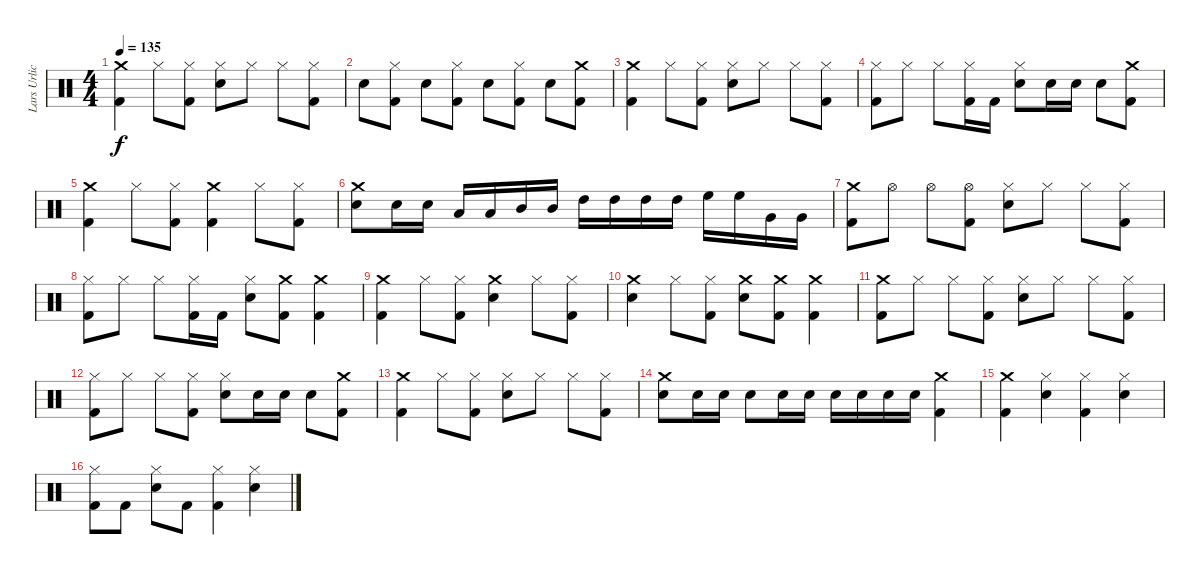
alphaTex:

\track ("Lars Urlich (drums)" "Lars Urlic") {instrument percussion}
\staff {score}
\articulation defaults
\ts (4 4)
\tempo 135
\clef neutral
\ks c
("Kick (hit) 2" "Crash medium (hit)").4{dy f} "Hi-Hat (closed)".8 ("Kick (hit) 2" "Hi-Hat (closed)").8 ("Snare (hit) 2" "Hi-Hat (closed)").8 "Hi-Hat (closed)".8 "Hi-Hat (closed)".8 ("Kick (hit) 2" "Hi-Hat (closed)").8 |
"Snare (hit) 2".8 ("Kick (hit) 2" "Hi-Hat (closed)").8 "Snare (hit) 2".8 ("Kick (hit) 2" "Hi-Hat (closed)").8 "Snare (hit) 2".8 ("Hi-Hat (closed)" "Kick (hit) 2").8 "Snare (hit) 2".8 ("Crash medium (hit)" "Kick (hit) 2").8 |
("Kick (hit) 2" "Crash medium (hit)").4 "Hi-Hat (closed)".8 ("Kick (hit) 2" "Hi-Hat (closed)").8 ("Snare (hit) 2" "Hi-Hat (closed)").8 "Hi-Hat (closed)".8 "Hi-Hat (closed)".8 ("Kick (hit) 2" "Hi-Hat (closed)").8 |
("Kick (hit) 2" "Hi-Hat (closed)").8 "Hi-Hat (closed)".8 "Hi-Hat (closed)".8 ("Kick (hit) 2" "Hi-Hat (closed)").16 "Kick (hit) 2".16 ("Snare (hit) 2" "Hi-Hat (closed)").8 "Snare (hit) 2".16 "Snare (hit) 2".16 "Snare (hit) 2".8 ("Crash medium (hit)" "Kick (hit) 2").8 |
("Kick (hit) 2" "Crash medium (hit)").4 "Hi-Hat (closed)".8 ("Kick (hit) 2" "Hi-Hat (closed)").8 ("Kick (hit) 2" "Crash medium (hit)").4 "Hi-Hat (closed)".8 ("Kick (hit) 2" "Hi-Hat (closed)").8 |
("Snare (hit) 2" "Crash medium (hit)").8 "Snare (hit) 2".16 "Snare (hit) 2".16 "Low Tom (hit)".16 "Low Tom (hit)".16 "Mid Tom (hit)".16 "Mid Tom (hit)".16 "High Tom (hit)".16 "High Tom (hit)".16 "High Tom (hit)".16 "High Tom (hit)".16 "High Floor Tom (hit)".16 "High Floor Tom (hit)".16 "Very Low Tom (hit)".16 "Very Low Tom (hit)".16 |
("Kick (hit) 2" "Crash medium (hit)").8 "Hi-Hat (open)".8 "Hi-Hat (open)".8 ("Kick (hit) 2" "Hi-Hat (open)").8 ("Snare (hit) 2" "Hi-Hat (closed)").8 "Hi-Hat (closed)".8 "Hi-Hat (closed)".8 ("Kick (hit) 2" "Hi-Hat (closed)").8 |
("Kick (hit) 2" "Hi-Hat (closed)").8 "Hi-Hat (closed)".8 "Hi-Hat (closed)".8 ("Kick (hit) 2" "Hi-Hat (closed)").16 "Kick (hit) 2".16 ("Snare (hit) 2" "Hi-Hat (closed)").8 ("Kick (hit) 2" "Crash medium (hit)").8 ("Kick (hit) 2" "Crash medium (hit)").4 |
("Kick (hit) 2" "Crash medium (hit)").4 "Hi-Hat (closed)".8 ("Kick (hit) 2" "Hi-Hat (closed)").8 ("Snare (hit) 2" "Crash medium (hit)").4 "Hi-Hat (closed)".8 ("Kick (hit) 2" "Hi-Hat (closed)").8 |
("Snare (hit) 2" "Crash medium (hit)").4 "Hi-Hat (closed)".8 ("Kick (hit) 2" "Hi-Hat (closed)").8 ("Snare (hit) 2" "Crash medium (hit)").8 ("Kick (hit) 2" "Crash medium (hit)").8 ("Crash medium (hit)" "Kick (hit) 2").4 |
("Crash medium (hit)" "Kick (hit) 2").8 "Hi-Hat (closed)".8 "Hi-Hat (closed)".8 ("Kick (hit) 2" "Hi-Hat (closed)").8 ("Snare (hit) 2" "Hi-Hat (closed)").8 "Hi-Hat (closed)".8 "Hi-Hat (closed)".8 ("Kick (hit) 2" "Hi-Hat (closed)").8 |
("Hi-Hat (closed)" "Kick (hit) 2").8 "Hi-Hat (closed)".8 "Hi-Hat (closed)".8 ("Kick (hit) 2" "Hi-Hat (closed)").8 ("Snare (hit) 2" "Hi-Hat (closed)").8 "Snare (hit) 2".16 "Snare (hit) 2".16 "Snare (hit) 2".8 ("Kick (hit) 2" "Crash medium (hit)").8 |
("Kick (hit) 2" "Crash medium (hit)").4 "Hi-Hat (closed)".8 ("Hi-Hat (closed)" "Kick (hit) 2").8 ("Hi-Hat (closed)" "Snare (hit) 2").8 "Hi-Hat (closed)".8 "Hi-Hat (closed)".8 ("Hi-Hat (closed)" "Kick (hit) 2").8 |
("Snare (hit) 2" "Crash medium (hit)").8 "Snare (hit) 2".16 "Snare (hit) 2".16 "Snare (hit) 2".8 "Snare (hit) 2".16 "Snare (hit) 2".16 "Snare (hit) 2".16 "Snare (hit) 2".16 "Snare (hit) 2".16 "Snare (hit) 2".16 ("Crash medium (hit)" "Kick (hit) 2").4 |
("Kick (hit) 2" "Crash medium (hit)").4 ("Hi-Hat (closed)" "Snare (hit) 2").4 ("Kick (hit) 2" "Hi-Hat (closed)").4 ("Snare (hit) 2" "Hi-Hat (closed)").4 |
("Kick (hit) 2" "Hi-Hat (closed)").8 "Kick (hit) 2".8 ("Snare (hit) 2" "Hi-Hat (closed)").8 "Kick (hit) 2".8 ("Kick (hit) 2" "Hi-Hat (closed)").4 ("Snare (hit) 2" "Hi-Hat (closed)").4
